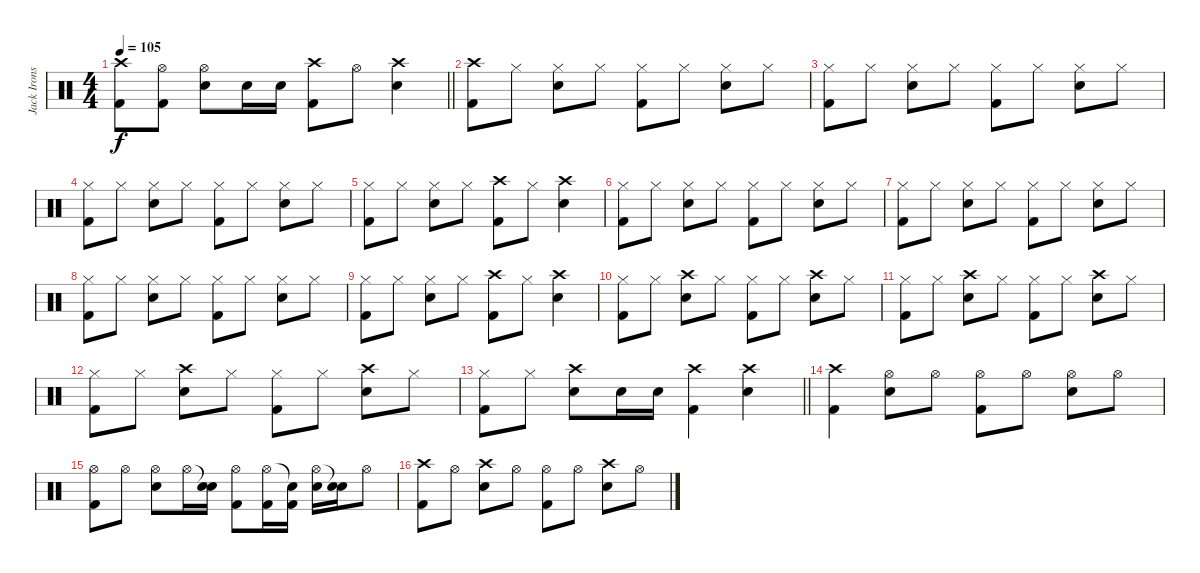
\track ("Jack Irons" "Jack Irons") {instrument percussion}
\staff {score}
\articulation defaults
\ts (4 4)
\tempo 105
\clef neutral
\barLineRight lightlight
\ks c
("Crash high (hit)" "Kick (hit) 2").8{dy f} ("Hi-Hat (open)" "Kick (hit) 2").8 ("Hi-Hat (open)" "Snare (hit) 2").8 "Snare (hit) 2".16 "Snare (hit) 2".16 ("Crash high (hit)" "Kick (hit) 2").8 "Hi-Hat (open)".8 ("Crash high (hit)" "Snare (hit) 2").4 |
("Crash high (hit)" "Kick (hit) 2").8 "Hi-Hat (closed)".8 ("Hi-Hat (closed)" "Snare (hit) 2").8 "Hi-Hat (closed)".8 ("Hi-Hat (closed)" "Kick (hit) 2").8 "Hi-Hat (closed)".8 ("Hi-Hat (closed)" "Snare (hit) 2").8 "Hi-Hat (closed)".8 |
("Hi-Hat (closed)" "Kick (hit) 2").8 "Hi-Hat (closed)".8 ("Hi-Hat (closed)" "Snare (hit) 2").8 "Hi-Hat (closed)".8 ("Hi-Hat (closed)" "Kick (hit) 2").8 "Hi-Hat (closed)".8 ("Hi-Hat (closed)" "Snare (hit) 2").8 "Hi-Hat (closed)".8 |
("Hi-Hat (closed)" "Kick (hit) 2").8 "Hi-Hat (closed)".8 ("Hi-Hat (closed)" "Snare (hit) 2").8 "Hi-Hat (closed)".8 ("Hi-Hat (closed)" "Kick (hit) 2").8 "Hi-Hat (closed)".8 ("Hi-Hat (closed)" "Snare (hit) 2").8 "Hi-Hat (closed)".8 |
("Hi-Hat (closed)" "Kick (hit) 2").8 "Hi-Hat (closed)".8 ("Hi-Hat (closed)" "Snare (hit) 2").8 "Hi-Hat (closed)".8 ("Crash high (hit)" "Kick (hit) 2").8 "Hi-Hat (closed)".8 ("Crash high (hit)" "Snare (hit) 2").4 |
("Hi-Hat (closed)" "Kick (hit) 2").8 "Hi-Hat (closed)".8 ("Hi-Hat (closed)" "Snare (hit) 2").8 "Hi-Hat (closed)".8 ("Hi-Hat (closed)" "Kick (hit) 2").8 "Hi-Hat (closed)".8 ("Hi-Hat (closed)" "Snare (hit) 2").8 "Hi-Hat (closed)".8 |
("Hi-Hat (closed)" "Kick (hit) 2").8 "Hi-Hat (closed)".8 ("Hi-Hat (closed)" "Snare (hit) 2").8 "Hi-Hat (closed)".8 ("Hi-Hat (closed)" "Kick (hit) 2").8 "Hi-Hat (closed)".8 ("Hi-Hat (closed)" "Snare (hit) 2").8 "Hi-Hat (closed)".8 |
("Hi-Hat (closed)" "Kick (hit) 2").8 "Hi-Hat (closed)".8 ("Hi-Hat (closed)" "Snare (hit) 2").8 "Hi-Hat (closed)".8 ("Hi-Hat (closed)" "Kick (hit) 2").8 "Hi-Hat (closed)".8 ("Hi-Hat (closed)" "Snare (hit) 2").8 "Hi-Hat (closed)".8 |
("Hi-Hat (closed)" "Kick (hit) 2").8 "Hi-Hat (closed)".8 ("Hi-Hat (closed)" "Snare (hit) 2").8 "Hi-Hat (closed)".8 ("Crash high (hit)" "Kick (hit) 2").8 "Hi-Hat (closed)".8 ("Crash high (hit)" "Snare (hit) 2").4 |
("Hi-Hat (closed)" "Kick (hit) 2").8 "Hi-Hat (closed)".8 ("Crash high (hit)" "Snare (hit) 2").8 "Hi-Hat (closed)".8 ("Hi-Hat (closed)" "Kick (hit) 2").8 "Hi-Hat (closed)".8 ("Crash high (hit)" "Snare (hit) 2").8 "Hi-Hat (closed)".8 |
("Hi-Hat (closed)" "Kick (hit) 2").8 "Hi-Hat (closed)".8 ("Crash high (hit)" "Snare (hit) 2").8 "Hi-Hat (closed)".8 ("Hi-Hat (closed)" "Kick (hit) 2").8 "Hi-Hat (closed)".8 ("Crash high (hit)" "Snare (hit) 2").8 "Hi-Hat (closed)".8 |
("Hi-Hat (closed)" "Kick (hit) 2").8 "Hi-Hat (closed)".8 ("Crash high (hit)" "Snare (hit) 2").8 "Hi-Hat (closed)".8 ("Hi-Hat (closed)" "Kick (hit) 2").8 "Hi-Hat (closed)".8 ("Crash high (hit)" "Snare (hit) 2").8 "Hi-Hat (closed)".8 |
\barLineRight lightlight
("Hi-Hat (closed)" "Kick (hit) 2").8 "Hi-Hat (closed)".8 ("Crash high (hit)" "Snare (hit) 2").8 "Snare (hit) 2".16 "Snare (hit) 2".16 ("Crash high (hit)" "Kick (hit) 2").4 ("Crash high (hit)" "Snare (hit) 2").4 |
("Crash high (hit)" "Kick (hit) 2").4 ("Hi-Hat (open)" "Snare (hit) 2").8 "Hi-Hat (open)".8 ("Hi-Hat (open)" "Kick (hit) 2").8 "Hi-Hat (open)".8 ("Hi-Hat (open)" "Snare (hit) 2").8 "Hi-Hat (open)".8 |
("Hi-Hat (open)" "Kick (hit) 2").8 "Hi-Hat (open)".8 ("Hi-Hat (open)" "Snare (hit) 2").8 "Hi-Hat (open)".16 ("Snare (hit)"{t} "Snare (hit) 2").16 ("Hi-Hat (open)" "Kick (hit) 2").8 ("Hi-Hat (open)" "Kick (hit) 2").16 ("Snare (hit)"{t} "Kick (hit) 2").16 ("Hi-Hat (open)" "Snare (hit) 2").16 ("Snare (hit)"{t} "Snare (hit) 2").16 "Hi-Hat (open)".8 |
("Crash high (hit)" "Kick (hit) 2").8 "Hi-Hat (open)".8 ("Crash high (hit)" "Snare (hit) 2").8 "Hi-Hat (open)".8 ("Hi-Hat (open)" "Kick (hit) 2").8 "Hi-Hat (open)".8 ("Crash high (hit)" "Snare (hit) 2").8 "Hi-Hat (open)".8
